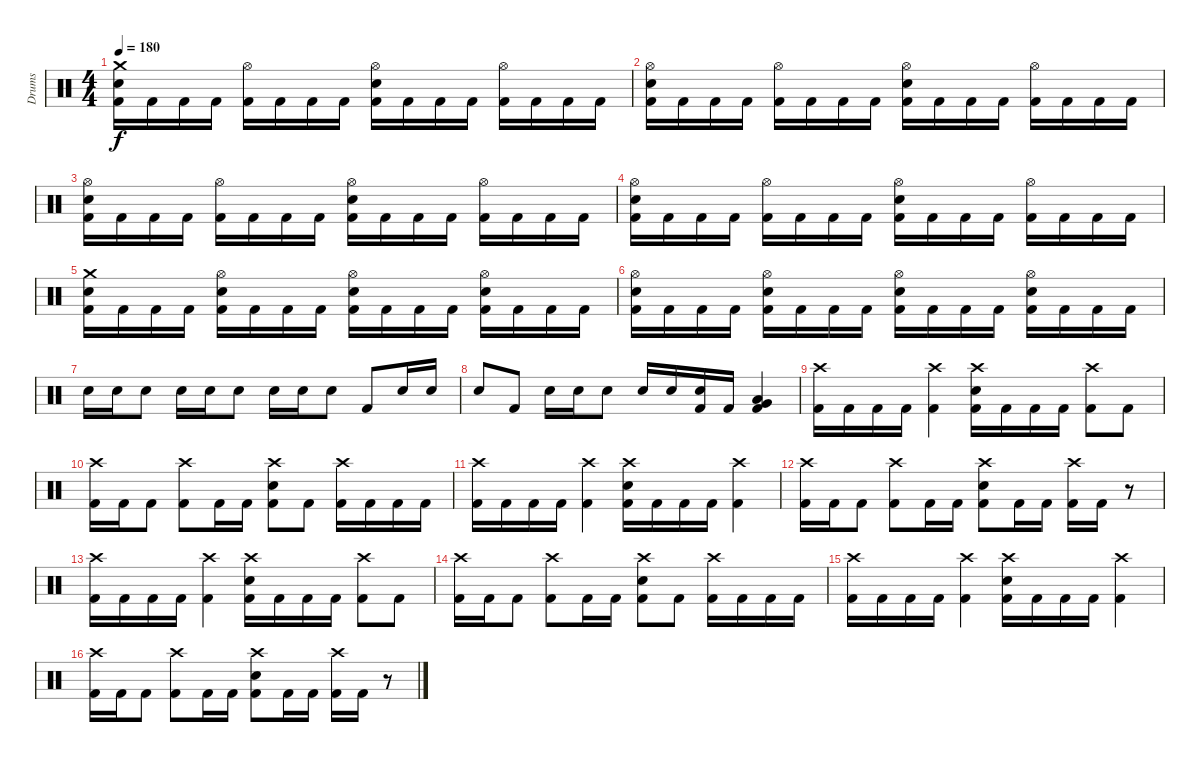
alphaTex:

\track ("Drums" "Drums") {instrument percussion}
\staff {score}
\articulation defaults
\ts (4 4)
\tempo 180
\clef neutral
\ks c
("Crash medium (hit)" "Electric Snare (hit)" "Kick (hit) 2").16{dy f} "Kick (hit) 2".16 "Kick (hit) 2".16 "Kick (hit) 2".16 ("Hi-Hat (open)" "Kick (hit) 2").16 "Kick (hit) 2".16 "Kick (hit) 2".16 "Kick (hit) 2".16 ("Hi-Hat (open)" "Electric Snare (hit)" "Kick (hit) 2").16 "Kick (hit) 2".16 "Kick (hit) 2".16 "Kick (hit) 2".16 ("Hi-Hat (open)" "Kick (hit) 2").16 "Kick (hit) 2".16 "Kick (hit) 2".16 "Kick (hit) 2".16 |
("Hi-Hat (open)" "Electric Snare (hit)" "Kick (hit) 2").16 "Kick (hit) 2".16 "Kick (hit) 2".16 "Kick (hit) 2".16 ("Hi-Hat (open)" "Kick (hit) 2").16 "Kick (hit) 2".16 "Kick (hit) 2".16 "Kick (hit) 2".16 ("Hi-Hat (open)" "Electric Snare (hit)" "Kick (hit) 2").16 "Kick (hit) 2".16 "Kick (hit) 2".16 "Kick (hit) 2".16 ("Hi-Hat (open)" "Kick (hit) 2").16 "Kick (hit) 2".16 "Kick (hit) 2".16 "Kick (hit) 2".16 |
("Hi-Hat (open)" "Electric Snare (hit)" "Kick (hit) 2").16 "Kick (hit) 2".16 "Kick (hit) 2".16 "Kick (hit) 2".16 ("Hi-Hat (open)" "Kick (hit) 2").16 "Kick (hit) 2".16 "Kick (hit) 2".16 "Kick (hit) 2".16 ("Hi-Hat (open)" "Electric Snare (hit)" "Kick (hit) 2").16 "Kick (hit) 2".16 "Kick (hit) 2".16 "Kick (hit) 2".16 ("Hi-Hat (open)" "Kick (hit) 2").16 "Kick (hit) 2".16 "Kick (hit) 2".16 "Kick (hit) 2".16 |
("Hi-Hat (open)" "Electric Snare (hit)" "Kick (hit) 2").16 "Kick (hit) 2".16 "Kick (hit) 2".16 "Kick (hit) 2".16 ("Hi-Hat (open)" "Kick (hit) 2").16 "Kick (hit) 2".16 "Kick (hit) 2".16 "Kick (hit) 2".16 ("Hi-Hat (open)" "Electric Snare (hit)" "Kick (hit) 2").16 "Kick (hit) 2".16 "Kick (hit) 2".16 "Kick (hit) 2".16 ("Hi-Hat (open)" "Kick (hit) 2").16 "Kick (hit) 2".16 "Kick (hit) 2".16 "Kick (hit) 2".16 |
("Crash medium (hit)" "Electric Snare (hit)" "Kick (hit) 2").16 "Kick (hit) 2".16 "Kick (hit) 2".16 "Kick (hit) 2".16 ("Hi-Hat (open)" "Electric Snare (hit)" "Kick (hit) 2").16 "Kick (hit) 2".16 "Kick (hit) 2".16 "Kick (hit) 2".16 ("Hi-Hat (open)" "Electric Snare (hit)" "Kick (hit) 2").16 "Kick (hit) 2".16 "Kick (hit) 2".16 "Kick (hit) 2".16 ("Hi-Hat (open)" "Electric Snare (hit)" "Kick (hit) 2").16 "Kick (hit) 2".16 "Kick (hit) 2".16 "Kick (hit) 2".16 |
("Hi-Hat (open)" "Electric Snare (hit)" "Kick (hit) 2").16 "Kick (hit) 2".16 "Kick (hit) 2".16 "Kick (hit) 2".16 ("Hi-Hat (open)" "Electric Snare (hit)" "Kick (hit) 2").16 "Kick (hit) 2".16 "Kick (hit) 2".16 "Kick (hit) 2".16 ("Hi-Hat (open)" "Electric Snare (hit)" "Kick (hit) 2").16 "Kick (hit) 2".16 "Kick (hit) 2".16 "Kick (hit) 2".16 ("Hi-Hat (open)" "Electric Snare (hit)" "Kick (hit) 2").16 "Kick (hit) 2".16 "Kick (hit) 2".16 "Kick (hit) 2".16 |
"Electric Snare (hit)".16 "Electric Snare (hit)".16 "Electric Snare (hit)".8 "Electric Snare (hit)".16 "Electric Snare (hit)".16 "Electric Snare (hit)".8 "Electric Snare (hit)".16 "Electric Snare (hit)".16 "Electric Snare (hit)".8 "Kick (hit) 2".8 "Electric Snare (hit)".16 "Electric Snare (hit)".16 |
"Electric Snare (hit)".8 "Kick (hit) 2".8 "Electric Snare (hit)".16 "Electric Snare (hit)".16 "Electric Snare (hit)".8 "Electric Snare (hit)".16 "Electric Snare (hit)".16 ("Electric Snare (hit)" "Kick (hit) 2").16 "Kick (hit) 2".16 ("Low Tom (hit)" "Very Low Tom (hit)" "Kick (hit) 2").4 |
("Crash high (hit)" "Kick (hit) 2").16 "Kick (hit) 2".16 "Kick (hit) 2".16 "Kick (hit) 2".16 ("Crash high (hit)" "Kick (hit) 2").4 ("Crash high (hit)" "Electric Snare (hit)" "Kick (hit) 2").16 "Kick (hit) 2".16 "Kick (hit) 2".16 "Kick (hit) 2".16 ("Crash high (hit)" "Kick (hit) 2").8 "Kick (hit) 2".8 |
("Crash high (hit)" "Kick (hit) 2").16 "Kick (hit) 2".16 "Kick (hit) 2".8 ("Crash high (hit)" "Kick (hit) 2").8 "Kick (hit) 2".16 "Kick (hit) 2".16 ("Crash high (hit)" "Electric Snare (hit)" "Kick (hit) 2").8 "Kick (hit) 2".8 ("Crash high (hit)" "Kick (hit) 2").16 "Kick (hit) 2".16 "Kick (hit) 2".16 "Kick (hit) 2".16 |
("Crash high (hit)" "Kick (hit) 2").16 "Kick (hit) 2".16 "Kick (hit) 2".16 "Kick (hit) 2".16 ("Crash high (hit)" "Kick (hit) 2").4 ("Crash high (hit)" "Electric Snare (hit)" "Kick (hit) 2").16 "Kick (hit) 2".16 "Kick (hit) 2".16 "Kick (hit) 2".16 ("Crash high (hit)" "Kick (hit) 2").4 |
("Crash high (hit)" "Kick (hit) 2").16 "Kick (hit) 2".16 "Kick (hit) 2".8 ("Crash high (hit)" "Kick (hit) 2").8 "Kick (hit) 2".16 "Kick (hit) 2".16 ("Crash high (hit)" "Electric Snare (hit)" "Kick (hit) 2").8 "Kick (hit) 2".16 "Kick (hit) 2".16 ("Crash high (hit)" "Kick (hit) 2").16 "Kick (hit) 2".16 r.8 |
("Crash high (hit)" "Kick (hit) 2").16 "Kick (hit) 2".16 "Kick (hit) 2".16 "Kick (hit) 2".16 ("Crash high (hit)" "Kick (hit) 2").4 ("Crash high (hit)" "Electric Snare (hit)" "Kick (hit) 2").16 "Kick (hit) 2".16 "Kick (hit) 2".16 "Kick (hit) 2".16 ("Crash high (hit)" "Kick (hit) 2").8 "Kick (hit) 2".8 |
("Crash high (hit)" "Kick (hit) 2").16 "Kick (hit) 2".16 "Kick (hit) 2".8 ("Crash high (hit)" "Kick (hit) 2").8 "Kick (hit) 2".16 "Kick (hit) 2".16 ("Crash high (hit)" "Electric Snare (hit)" "Kick (hit) 2").8 "Kick (hit) 2".8 ("Crash high (hit)" "Kick (hit) 2").16 "Kick (hit) 2".16 "Kick (hit) 2".16 "Kick (hit) 2".16 |
("Crash high (hit)" "Kick (hit) 2").16 "Kick (hit) 2".16 "Kick (hit) 2".16 "Kick (hit) 2".16 ("Crash high (hit)" "Kick (hit) 2").4 ("Crash high (hit)" "Electric Snare (hit)" "Kick (hit) 2").16 "Kick (hit) 2".16 "Kick (hit) 2".16 "Kick (hit) 2".16 ("Crash high (hit)" "Kick (hit) 2").4 |
("Crash high (hit)" "Kick (hit) 2").16 "Kick (hit) 2".16 "Kick (hit) 2".8 ("Crash high (hit)" "Kick (hit) 2").8 "Kick (hit) 2".16 "Kick (hit) 2".16 ("Crash high (hit)" "Electric Snare (hit)" "Kick (hit) 2").8 "Kick (hit) 2".16 "Kick (hit) 2".16 ("Crash high (hit)" "Kick (hit) 2").16 "Kick (hit) 2".16 r.8
